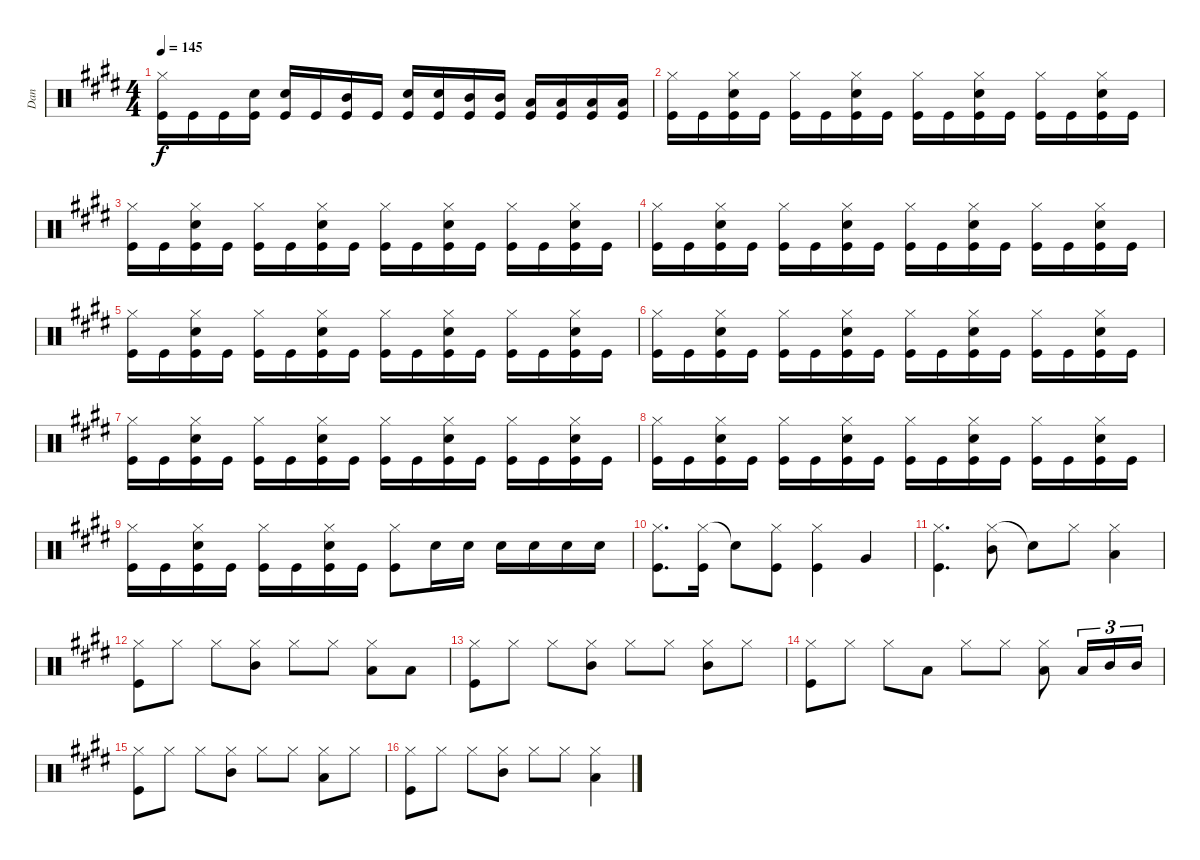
\track ("Dan" "Dan") {instrument percussion}
\staff {score}
\articulation defaults
\ts (4 4)
\tempo 145
\clef neutral
\ks e
("Hi-Hat (closed)" "Kick (hit)").16{dy f} "Kick (hit)".16 "Kick (hit)".16 ("Snare (hit) 2" "Kick (hit)").16 ("Snare (hit) 2" "Kick (hit)").16 "Kick (hit)".16 ("Mid Tom (hit)" "Kick (hit)").16 "Kick (hit)".16 ("Snare (hit) 2" "Kick (hit)").16 ("Snare (hit) 2" "Kick (hit)").16 ("Mid Tom (hit)" "Kick (hit)").16 ("Mid Tom (hit)" "Kick (hit)").16 ("Low Tom (hit)" "Kick (hit)").16 ("Low Tom (hit)" "Kick (hit)").16 ("Low Tom (hit)" "Kick (hit)").16 ("Low Tom (hit)" "Kick (hit)").16 |
("Hi-Hat (closed)" "Kick (hit)").16 "Kick (hit)".16 ("Hi-Hat (closed)" "Snare (hit) 2" "Kick (hit)").16 "Kick (hit)".16 ("Hi-Hat (closed)" "Kick (hit)").16 "Kick (hit)".16 ("Hi-Hat (closed)" "Snare (hit) 2" "Kick (hit)").16 "Kick (hit)".16 ("Hi-Hat (closed)" "Kick (hit)").16 "Kick (hit)".16 ("Hi-Hat (closed)" "Snare (hit) 2" "Kick (hit)").16 "Kick (hit)".16 ("Hi-Hat (closed)" "Kick (hit)").16 "Kick (hit)".16 ("Hi-Hat (closed)" "Snare (hit) 2" "Kick (hit)").16 "Kick (hit)".16 |
("Hi-Hat (closed)" "Kick (hit)").16 "Kick (hit)".16 ("Hi-Hat (closed)" "Snare (hit) 2" "Kick (hit)").16 "Kick (hit)".16 ("Hi-Hat (closed)" "Kick (hit)").16 "Kick (hit)".16 ("Hi-Hat (closed)" "Snare (hit) 2" "Kick (hit)").16 "Kick (hit)".16 ("Hi-Hat (closed)" "Kick (hit)").16 "Kick (hit)".16 ("Hi-Hat (closed)" "Snare (hit) 2" "Kick (hit)").16 "Kick (hit)".16 ("Hi-Hat (closed)" "Kick (hit)").16 "Kick (hit)".16 ("Hi-Hat (closed)" "Snare (hit) 2" "Kick (hit)").16 "Kick (hit)".16 |
("Hi-Hat (closed)" "Kick (hit)").16 "Kick (hit)".16 ("Hi-Hat (closed)" "Snare (hit) 2" "Kick (hit)").16 "Kick (hit)".16 ("Hi-Hat (closed)" "Kick (hit)").16 "Kick (hit)".16 ("Hi-Hat (closed)" "Snare (hit) 2" "Kick (hit)").16 "Kick (hit)".16 ("Hi-Hat (closed)" "Kick (hit)").16 "Kick (hit)".16 ("Hi-Hat (closed)" "Snare (hit) 2" "Kick (hit)").16 "Kick (hit)".16 ("Hi-Hat (closed)" "Kick (hit)").16 "Kick (hit)".16 ("Hi-Hat (closed)" "Snare (hit) 2" "Kick (hit)").16 "Kick (hit)".16 |
("Hi-Hat (closed)" "Kick (hit)").16 "Kick (hit)".16 ("Hi-Hat (closed)" "Snare (hit) 2" "Kick (hit)").16 "Kick (hit)".16 ("Hi-Hat (closed)" "Kick (hit)").16 "Kick (hit)".16 ("Hi-Hat (closed)" "Snare (hit) 2" "Kick (hit)").16 "Kick (hit)".16 ("Hi-Hat (closed)" "Kick (hit)").16 "Kick (hit)".16 ("Hi-Hat (closed)" "Snare (hit) 2" "Kick (hit)").16 "Kick (hit)".16 ("Hi-Hat (closed)" "Kick (hit)").16 "Kick (hit)".16 ("Hi-Hat (closed)" "Snare (hit) 2" "Kick (hit)").16 "Kick (hit)".16 |
("Hi-Hat (closed)" "Kick (hit)").16 "Kick (hit)".16 ("Hi-Hat (closed)" "Snare (hit) 2" "Kick (hit)").16 "Kick (hit)".16 ("Hi-Hat (closed)" "Kick (hit)").16 "Kick (hit)".16 ("Hi-Hat (closed)" "Snare (hit) 2" "Kick (hit)").16 "Kick (hit)".16 ("Hi-Hat (closed)" "Kick (hit)").16 "Kick (hit)".16 ("Hi-Hat (closed)" "Snare (hit) 2" "Kick (hit)").16 "Kick (hit)".16 ("Hi-Hat (closed)" "Kick (hit)").16 "Kick (hit)".16 ("Hi-Hat (closed)" "Snare (hit) 2" "Kick (hit)").16 "Kick (hit)".16 |
("Hi-Hat (closed)" "Kick (hit)").16 "Kick (hit)".16 ("Hi-Hat (closed)" "Snare (hit) 2" "Kick (hit)").16 "Kick (hit)".16 ("Hi-Hat (closed)" "Kick (hit)").16 "Kick (hit)".16 ("Hi-Hat (closed)" "Snare (hit) 2" "Kick (hit)").16 "Kick (hit)".16 ("Hi-Hat (closed)" "Kick (hit)").16 "Kick (hit)".16 ("Hi-Hat (closed)" "Snare (hit) 2" "Kick (hit)").16 "Kick (hit)".16 ("Hi-Hat (closed)" "Kick (hit)").16 "Kick (hit)".16 ("Hi-Hat (closed)" "Snare (hit) 2" "Kick (hit)").16 "Kick (hit)".16 |
("Hi-Hat (closed)" "Kick (hit)").16 "Kick (hit)".16 ("Hi-Hat (closed)" "Snare (hit) 2" "Kick (hit)").16 "Kick (hit)".16 ("Hi-Hat (closed)" "Kick (hit)").16 "Kick (hit)".16 ("Hi-Hat (closed)" "Snare (hit) 2" "Kick (hit)").16 "Kick (hit)".16 ("Hi-Hat (closed)" "Kick (hit)").16 "Kick (hit)".16 ("Hi-Hat (closed)" "Snare (hit) 2" "Kick (hit)").16 "Kick (hit)".16 ("Hi-Hat (closed)" "Kick (hit)").16 "Kick (hit)".16 ("Hi-Hat (closed)" "Snare (hit) 2" "Kick (hit)").16 "Kick (hit)".16 |
("Hi-Hat (closed)" "Kick (hit)").16 "Kick (hit)".16 ("Hi-Hat (closed)" "Snare (hit) 2" "Kick (hit)").16 "Kick (hit)".16 ("Hi-Hat (closed)" "Kick (hit)").16 "Kick (hit)".16 ("Hi-Hat (closed)" "Snare (hit) 2" "Kick (hit)").16 "Kick (hit)".16 ("Hi-Hat (closed)" "Kick (hit)").8 "Snare (hit) 2".16 "Snare (hit) 2".16 "Snare (hit) 2".16 "Snare (hit) 2".16 "Snare (hit) 2".16 "Snare (hit) 2".16 |
("Hi-Hat (closed)" "Kick (hit)").8{d} ("Hi-Hat (closed)" "Kick (hit)").16 "Snare (hit)"{t}.8 ("Hi-Hat (closed)" "Kick (hit)").8 ("Hi-Hat (closed)" "Kick (hit)").4 "Very Low Tom (hit)".4 |
("Hi-Hat (closed)" "Kick (hit)").4{d} ("Hi-Hat (closed)" "Mid Tom (hit)").8 "Snare (hit)"{t}.8 "Hi-Hat (closed)".8 ("Hi-Hat (closed)" "Low Tom (hit)").4 |
("Hi-Hat (closed)" "Kick (hit)").8 "Hi-Hat (closed)".8 "Hi-Hat (closed)".8 ("Hi-Hat (closed)" "Mid Tom (hit)").8 "Hi-Hat (closed)".8 "Hi-Hat (closed)".8 ("Hi-Hat (closed)" "Low Tom (hit)").8 "Low Tom (hit)".8 |
("Hi-Hat (closed)" "Kick (hit)").8 "Hi-Hat (closed)".8 "Hi-Hat (closed)".8 ("Hi-Hat (closed)" "Mid Tom (hit)").8 "Hi-Hat (closed)".8 "Hi-Hat (closed)".8 ("Hi-Hat (closed)" "Mid Tom (hit)").8 "Hi-Hat (closed)".8 |
("Hi-Hat (closed)" "Kick (hit)").8 "Hi-Hat (closed)".8 "Hi-Hat (closed)".8 "Low Tom (hit)".8 "Hi-Hat (closed)".8 "Hi-Hat (closed)".8 ("Hi-Hat (closed)" "Low Tom (hit)").8 "Low Tom (hit)".16{tu (3 2)} "Mid Tom (hit)".16{tu (3 2)} "Mid Tom (hit)".16{tu (3 2)} |
("Hi-Hat (closed)" "Kick (hit)").8 "Hi-Hat (closed)".8 "Hi-Hat (closed)".8 ("Hi-Hat (closed)" "Mid Tom (hit)").8 "Hi-Hat (closed)".8 "Hi-Hat (closed)".8 ("Hi-Hat (closed)" "Low Tom (hit)").8 "Hi-Hat (closed)".8 |
("Hi-Hat (closed)" "Kick (hit)").8 "Hi-Hat (closed)".8 "Hi-Hat (closed)".8 ("Hi-Hat (closed)" "Mid Tom (hit)").8 "Hi-Hat (closed)".8 "Hi-Hat (closed)".8 ("Hi-Hat (closed)" "Low Tom (hit)").4
